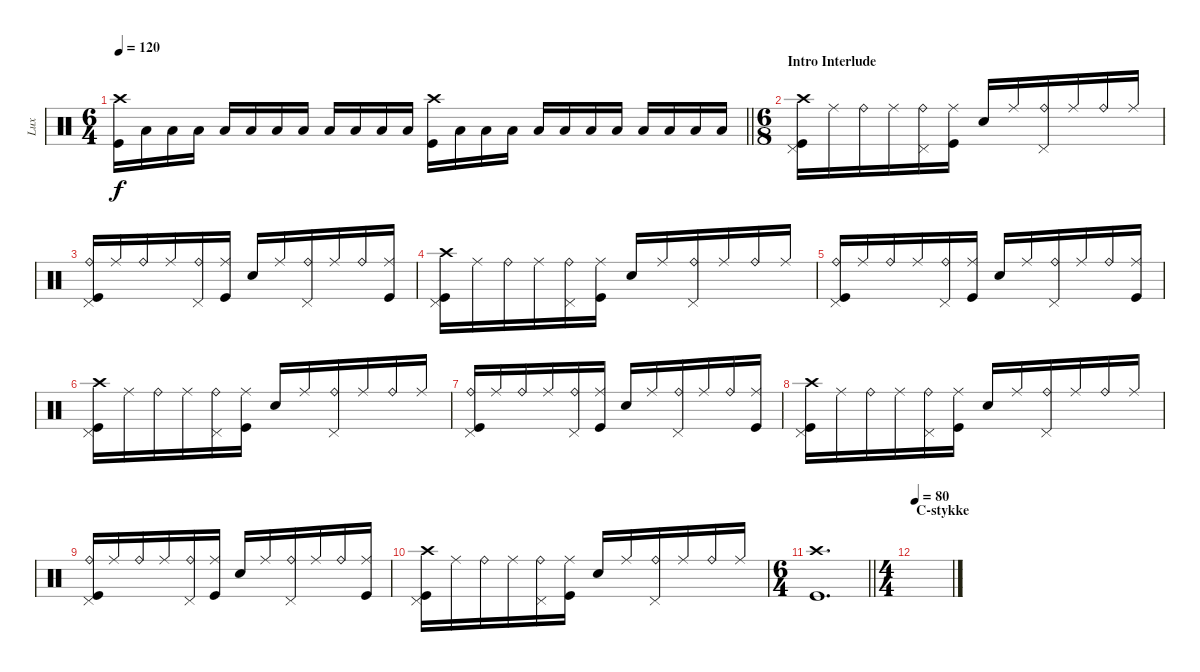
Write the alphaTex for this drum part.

\track ("Lux" "Lux") {instrument percussion}
\staff {score}
\articulation defaults
\ts (6 4)
\tempo 120
\clef neutral
\barLineRight lightlight
\ks c
("Crash high (hit)" "Kick (hit)").16{dy f} "Low Floor Tom (hit)".16 "Low Floor Tom (hit)".16 "Low Floor Tom (hit)".16 "Low Floor Tom (hit)".16 "Low Floor Tom (hit)".16 "Low Floor Tom (hit)".16 "Low Floor Tom (hit)".16 "Low Floor Tom (hit)".16 "Low Floor Tom (hit)".16 "Low Floor Tom (hit)".16 "Low Floor Tom (hit)".16 ("Crash high (hit)" "Kick (hit)").16 "Low Floor Tom (hit)".16 "Low Floor Tom (hit)".16 "Low Floor Tom (hit)".16 "Low Floor Tom (hit)".16 "Low Floor Tom (hit)".16 "Low Floor Tom (hit)".16 "Low Floor Tom (hit)".16 "Low Floor Tom (hit)".16 "Low Floor Tom (hit)".16 "Low Floor Tom (hit)".16 "Low Floor Tom (hit)".16 |
\ts (6 8)
\section ("" "Intro Interlude")
("Crash high (hit)" "Pedal Hi-Hat (hit)" "Kick (hit)").16 "Ride (middle)".16 "Ride (bell)".16 "Ride (middle)".16 ("Ride (bell)" "Pedal Hi-Hat (hit)").16 ("Ride (middle)" "Kick (hit)").16 "Snare (hit) 2".16 "Ride (middle)".16 ("Ride (bell)" "Pedal Hi-Hat (hit)").16 "Ride (middle)".16 "Ride (bell)".16 "Ride (middle)".16 |
("Ride (bell)" "Pedal Hi-Hat (hit)" "Kick (hit)").16 "Ride (middle)".16 "Ride (bell)".16 "Ride (middle)".16 ("Ride (bell)" "Pedal Hi-Hat (hit)").16 ("Ride (middle)" "Kick (hit)").16 "Snare (hit) 2".16 "Ride (middle)".16 ("Ride (bell)" "Pedal Hi-Hat (hit)").16 "Ride (middle)".16 "Ride (bell)".16 ("Ride (middle)" "Kick (hit)").16 |
("Crash high (hit)" "Pedal Hi-Hat (hit)" "Kick (hit)").16 "Ride (middle)".16 "Ride (bell)".16 "Ride (middle)".16 ("Ride (bell)" "Pedal Hi-Hat (hit)").16 ("Ride (middle)" "Kick (hit)").16 "Snare (hit) 2".16 "Ride (middle)".16 ("Ride (bell)" "Pedal Hi-Hat (hit)").16 "Ride (middle)".16 "Ride (bell)".16 "Ride (middle)".16 |
("Ride (bell)" "Pedal Hi-Hat (hit)" "Kick (hit)").16 "Ride (middle)".16 "Ride (bell)".16 "Ride (middle)".16 ("Ride (bell)" "Pedal Hi-Hat (hit)").16 ("Ride (middle)" "Kick (hit)").16 "Snare (hit) 2".16 "Ride (middle)".16 ("Ride (bell)" "Pedal Hi-Hat (hit)").16 "Ride (middle)".16 "Ride (bell)".16 ("Ride (middle)" "Kick (hit)").16 |
("Crash high (hit)" "Pedal Hi-Hat (hit)" "Kick (hit)").16 "Ride (middle)".16 "Ride (bell)".16 "Ride (middle)".16 ("Ride (bell)" "Pedal Hi-Hat (hit)").16 ("Ride (middle)" "Kick (hit)").16 "Snare (hit) 2".16 "Ride (middle)".16 ("Ride (bell)" "Pedal Hi-Hat (hit)").16 "Ride (middle)".16 "Ride (bell)".16 "Ride (middle)".16 |
("Ride (bell)" "Pedal Hi-Hat (hit)" "Kick (hit)").16 "Ride (middle)".16 "Ride (bell)".16 "Ride (middle)".16 ("Ride (bell)" "Pedal Hi-Hat (hit)").16 ("Ride (middle)" "Kick (hit)").16 "Snare (hit) 2".16 "Ride (middle)".16 ("Ride (bell)" "Pedal Hi-Hat (hit)").16 "Ride (middle)".16 "Ride (bell)".16 ("Ride (middle)" "Kick (hit)").16 |
("Crash high (hit)" "Pedal Hi-Hat (hit)" "Kick (hit)").16 "Ride (middle)".16 "Ride (bell)".16 "Ride (middle)".16 ("Ride (bell)" "Pedal Hi-Hat (hit)").16 ("Ride (middle)" "Kick (hit)").16 "Snare (hit) 2".16 "Ride (middle)".16 ("Ride (bell)" "Pedal Hi-Hat (hit)").16 "Ride (middle)".16 "Ride (bell)".16 "Ride (middle)".16 |
("Ride (bell)" "Pedal Hi-Hat (hit)" "Kick (hit)").16 "Ride (middle)".16 "Ride (bell)".16 "Ride (middle)".16 ("Ride (bell)" "Pedal Hi-Hat (hit)").16 ("Ride (middle)" "Kick (hit)").16 "Snare (hit) 2".16 "Ride (middle)".16 ("Ride (bell)" "Pedal Hi-Hat (hit)").16 "Ride (middle)".16 "Ride (bell)".16 ("Ride (middle)" "Kick (hit)").16 |
("Crash high (hit)" "Pedal Hi-Hat (hit)" "Kick (hit)").16 "Ride (middle)".16 "Ride (bell)".16 "Ride (middle)".16 ("Ride (bell)" "Pedal Hi-Hat (hit)").16 ("Ride (middle)" "Kick (hit)").16 "Snare (hit) 2".16 "Ride (middle)".16 ("Ride (bell)" "Pedal Hi-Hat (hit)").16 "Ride (middle)".16 "Ride (bell)".16 "Ride (middle)".16 |
\ts (6 4)
\barLineRight lightlight
("Crash high (hit)" "Kick (hit)").1{d} |
\ts (4 4)
\section ("" "C-stykke")
\tempo 80
